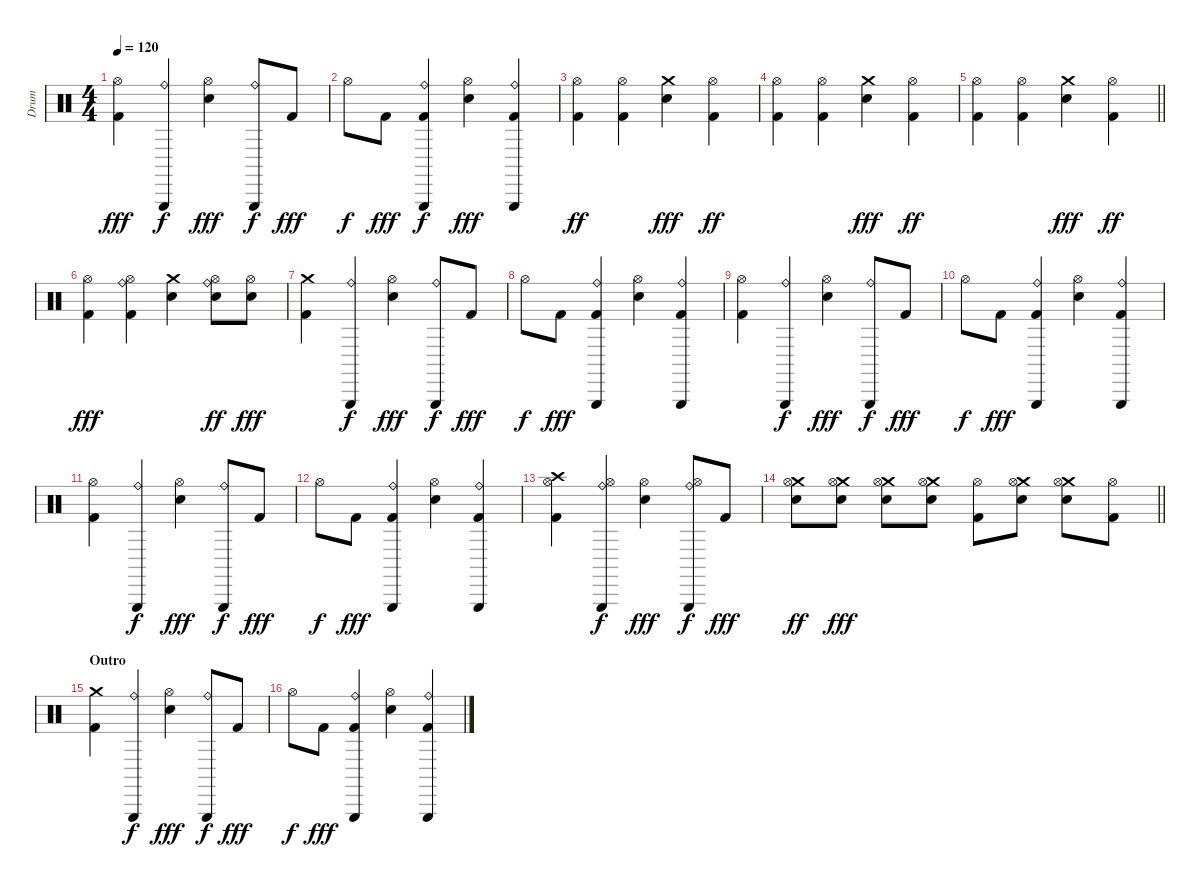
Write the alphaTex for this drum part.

\track ("Drum" "Drum") {instrument percussion}
\staff {score}
\articulation defaults
\ts (4 4)
\tempo 120
\clef neutral
\ks c
("Kick (hit) 2" "Hi-Hat (open)").4{dy fff} ("Ride (bell)" "Triangle (hit)").4{dy f} ("Electric Snare (hit)" "Hi-Hat (open)").4{dy fff} ("Ride (bell)" "Triangle (hit)").8{dy f} "Kick (hit) 2".8{dy fff} |
"Hi-Hat (open)".8{dy f} "Kick (hit) 2".8{dy fff} ("Kick (hit) 2" "Ride (bell)" "Triangle (hit)").4{dy f} ("Electric Snare (hit)" "Hi-Hat (open)").4{dy fff} ("Kick (hit) 2" "Ride (bell)" "Triangle (hit)").4 |
("Kick (hit) 2" "Hi-Hat (open)").4{dy ff} ("Kick (hit) 2" "Hi-Hat (open)").4 ("Electric Snare (hit)" "Crash medium (hit)").4{dy fff} ("Kick (hit) 2" "Hi-Hat (open)").4{dy ff} |
("Kick (hit) 2" "Hi-Hat (open)").4 ("Kick (hit) 2" "Hi-Hat (open)").4 ("Electric Snare (hit)" "Crash medium (hit)").4{dy fff} ("Kick (hit) 2" "Hi-Hat (open)").4{dy ff} |
\barLineRight lightlight
("Kick (hit) 2" "Hi-Hat (open)").4 ("Kick (hit) 2" "Hi-Hat (open)").4 ("Electric Snare (hit)" "Crash medium (hit)").4{dy fff} ("Kick (hit) 2" "Hi-Hat (open)").4{dy ff} |
("Kick (hit) 2" "Hi-Hat (open)").4{dy fff} ("Hi-Hat (open)" "Kick (hit) 2" "Ride (bell)").4 ("Electric Snare (hit)" "Crash medium (hit)").4 ("Hi-Hat (open)" "Electric Snare (hit)" "Ride (bell)").8{dy ff} ("Hi-Hat (open)" "Electric Snare (hit)").8{dy fff} |
("Kick (hit) 2" "Crash medium (hit)").4 ("Ride (bell)" "Triangle (hit)").4{dy f} ("Electric Snare (hit)" "Hi-Hat (open)").4{dy fff} ("Ride (bell)" "Triangle (hit)").8{dy f} "Kick (hit) 2".8{dy fff} |
"Hi-Hat (open)".8{dy f} "Kick (hit) 2".8{dy fff} ("Kick (hit) 2" "Ride (bell)" "Triangle (hit)").4 ("Electric Snare (hit)" "Hi-Hat (open)").4 ("Kick (hit) 2" "Ride (bell)" "Triangle (hit)").4 |
("Kick (hit) 2" "Hi-Hat (open)").4 ("Ride (bell)" "Triangle (hit)").4{dy f} ("Electric Snare (hit)" "Hi-Hat (open)").4{dy fff} ("Ride (bell)" "Triangle (hit)").8{dy f} "Kick (hit) 2".8{dy fff} |
"Hi-Hat (open)".8{dy f} "Kick (hit) 2".8{dy fff} ("Kick (hit) 2" "Ride (bell)" "Triangle (hit)").4 ("Electric Snare (hit)" "Hi-Hat (open)").4 ("Kick (hit) 2" "Ride (bell)" "Triangle (hit)").4 |
("Kick (hit) 2" "Hi-Hat (open)").4 ("Ride (bell)" "Triangle (hit)").4{dy f} ("Electric Snare (hit)" "Hi-Hat (open)").4{dy fff} ("Ride (bell)" "Triangle (hit)").8{dy f} "Kick (hit) 2".8{dy fff} |
"Hi-Hat (open)".8{dy f} "Kick (hit) 2".8{dy fff} ("Kick (hit) 2" "Ride (bell)" "Triangle (hit)").4 ("Electric Snare (hit)" "Hi-Hat (open)").4 ("Kick (hit) 2" "Ride (bell)" "Triangle (hit)").4 |
("Kick (hit) 2" "Crash high (hit)" "Hi-Hat (open)").4 ("Hi-Hat (open)" "Ride (bell)" "Triangle (hit)").4{dy f} ("Electric Snare (hit)" "Hi-Hat (open)").4{dy fff} ("Hi-Hat (open)" "Ride (bell)" "Triangle (hit)").8{dy f} "Kick (hit) 2".8{dy fff} |
\barLineRight lightlight
("Crash medium (hit)" "Electric Snare (hit)" "Hi-Hat (open)").8{dy ff} ("Crash medium (hit)" "Hi-Hat (open)" "Electric Snare (hit)").8{dy fff} ("Crash medium (hit)" "Hi-Hat (open)" "Electric Snare (hit)").8 ("Crash medium (hit)" "Hi-Hat (open)" "Electric Snare (hit)").8 ("Hi-Hat (open)" "Kick (hit) 2").8 ("Crash medium (hit)" "Hi-Hat (open)" "Electric Snare (hit)").8 ("Crash medium (hit)" "Hi-Hat (open)" "Electric Snare (hit)").8 ("Hi-Hat (open)" "Kick (hit) 2").8 |
\section ("" "Outro")
("Kick (hit) 2" "Crash medium (hit)").4 ("Ride (bell)" "Triangle (hit)").4{dy f} ("Electric Snare (hit)" "Hi-Hat (open)").4{dy fff} ("Ride (bell)" "Triangle (hit)").8{dy f} "Kick (hit) 2".8{dy fff} |
"Hi-Hat (open)".8{dy f} "Kick (hit) 2".8{dy fff} ("Kick (hit) 2" "Ride (bell)" "Triangle (hit)").4 ("Electric Snare (hit)" "Hi-Hat (open)").4 ("Kick (hit) 2" "Ride (bell)" "Triangle (hit)").4
